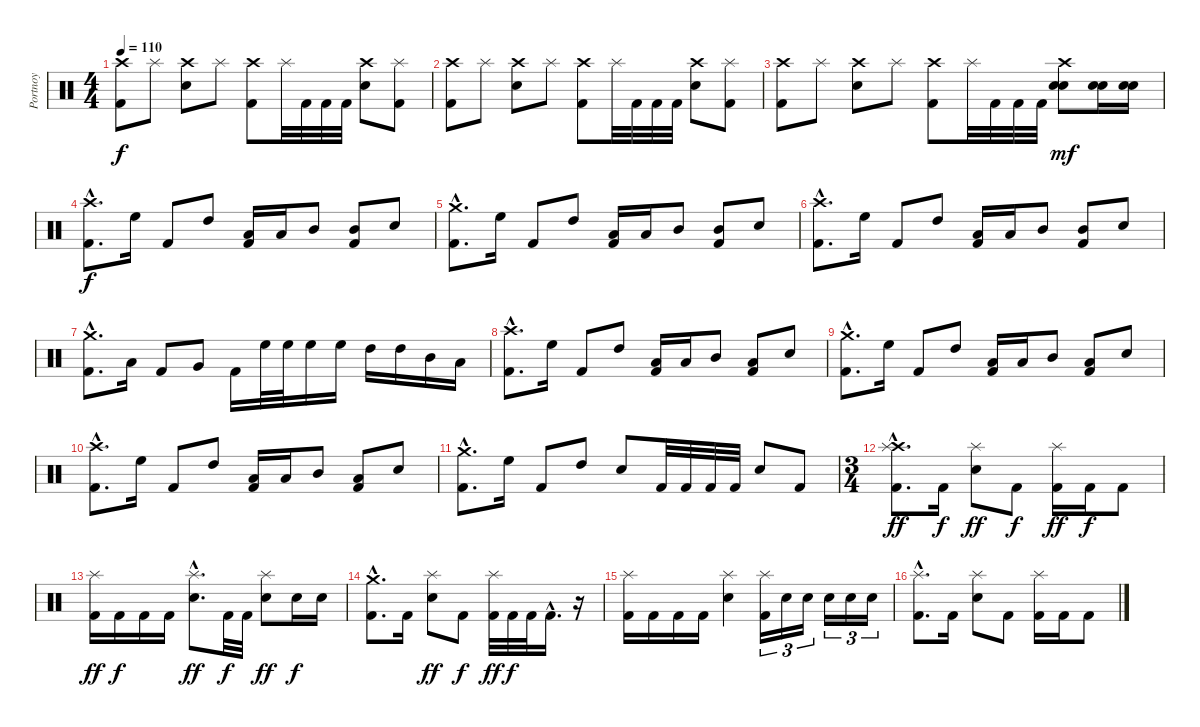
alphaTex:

\track ("Portnoy" "Portnoy") {instrument percussion}
\staff {score}
\articulation defaults
\ts (4 4)
\tempo 110
\clef neutral
\ks c
("Kick (hit) 2" "Crash high (hit)").8{dy f} "Splash (hit)".8 ("Crash high (hit)" "Snare (hit) 2").8 "Splash (hit)".8 ("Kick (hit) 2" "Crash high (hit)").8 "Splash (hit)".32 "Kick (hit) 2".32 "Kick (hit) 2".32 "Kick (hit) 2".32 ("Crash high (hit)" "Snare (hit) 2").8 ("Kick (hit) 2" "Splash (hit)").8 |
("Kick (hit) 2" "Crash high (hit)").8 "Splash (hit)".8 ("Crash high (hit)" "Snare (hit) 2").8 "Splash (hit)".8 ("Kick (hit) 2" "Crash high (hit)").8 "Splash (hit)".32 "Kick (hit) 2".32 "Kick (hit) 2".32 "Kick (hit) 2".32 ("Crash high (hit)" "Snare (hit) 2").8 ("Kick (hit) 2" "Splash (hit)").8 |
("Kick (hit) 2" "Crash high (hit)").8 "Splash (hit)".8 ("Crash high (hit)" "Snare (hit) 2").8 "Splash (hit)".8 ("Kick (hit) 2" "Crash high (hit)").8 "Splash (hit)".32 "Kick (hit) 2".32 "Kick (hit) 2".32 "Kick (hit) 2".32 ("Crash high (hit)" "Electric Snare (hit)" "Snare (hit) 2").8{dy mf} ("Electric Snare (hit)" "Snare (hit) 2").16 ("Electric Snare (hit)" "Snare (hit) 2").16 |
("Kick (hit) 2"{hac} "Crash high (hit)"{hac}).8{d dy f} "High Floor Tom (hit)".16 "Kick (hit) 2".8 "High Tom (hit)".8 ("Kick (hit) 2" "Low Tom (hit)").16 "Low Tom (hit)".16 "Mid Tom (hit)".8 ("Kick (hit) 2" "Mid Tom (hit)").8 "Snare (hit) 2".8 |
("Kick (hit) 2"{hac} "Crash medium (hit)"{hac}).8{d} "High Floor Tom (hit)".16 "Kick (hit) 2".8 "High Tom (hit)".8 ("Kick (hit) 2" "Low Tom (hit)").16 "Low Tom (hit)".16 "Mid Tom (hit)".8 ("Kick (hit) 2" "Mid Tom (hit)").8 "Snare (hit) 2".8 |
("Kick (hit) 2"{hac} "Crash high (hit)"{hac}).8{d} "High Floor Tom (hit)".16 "Kick (hit) 2".8 "High Tom (hit)".8 ("Kick (hit) 2" "Low Tom (hit)").16 "Low Tom (hit)".16 "Mid Tom (hit)".8 ("Kick (hit) 2" "Mid Tom (hit)").8 "Snare (hit) 2".8 |
("Kick (hit) 2"{hac} "Crash medium (hit)"{hac}).8{d} "Low Tom (hit)".16 "Kick (hit) 2".8 "Very Low Tom (hit)".8 "Kick (hit) 2".16 "High Floor Tom (hit)".32 "High Floor Tom (hit)".32 "High Floor Tom (hit)".16 "High Floor Tom (hit)".16 "High Tom (hit)".16 "High Tom (hit)".16 "Mid Tom (hit)".16 "Low Tom (hit)".16 |
("Kick (hit) 2"{hac} "Crash high (hit)"{hac}).8{d} "High Floor Tom (hit)".16 "Kick (hit) 2".8 "High Tom (hit)".8 ("Kick (hit) 2" "Low Tom (hit)").16 "Low Tom (hit)".16 "Mid Tom (hit)".8 ("Kick (hit) 2" "Low Tom (hit)").8 "Snare (hit) 2".8 |
("Kick (hit) 2"{hac} "Crash medium (hit)"{hac}).8{d} "High Floor Tom (hit)".16 "Kick (hit) 2".8 "High Tom (hit)".8 ("Kick (hit) 2" "Low Tom (hit)").16 "Low Tom (hit)".16 "Mid Tom (hit)".8 ("Kick (hit) 2" "Low Tom (hit)").8 "Snare (hit) 2".8 |
("Kick (hit) 2"{hac} "Crash high (hit)"{hac}).8{d} "High Floor Tom (hit)".16 "Kick (hit) 2".8 "High Tom (hit)".8 ("Kick (hit) 2" "Low Tom (hit)").16 "Low Tom (hit)".16 "Mid Tom (hit)".8 ("Kick (hit) 2" "Low Tom (hit)").8 "Snare (hit) 2".8 |
("Kick (hit) 2"{hac} "Crash medium (hit)"{hac}).8{d} "High Floor Tom (hit)".16 "Kick (hit) 2".8 "High Tom (hit)".8 "Snare (hit) 2".8 "Kick (hit) 2".32 "Kick (hit) 2".32 "Kick (hit) 2".32 "Kick (hit) 2".32 "Snare (hit) 2".8 "Kick (hit) 2".8 |
\ts (3 4)
("Kick (hit) 2"{hac} "Crash high (hit)"{hac} "Splash (hit)"{hac}).8{d dy ff} "Kick (hit) 2".16{dy f} ("Splash (hit)" "Snare (hit) 2").8{dy ff} "Kick (hit) 2".8{dy f} ("Kick (hit) 2" "Splash (hit)").16{dy ff} "Kick (hit) 2".16{dy f} "Kick (hit) 2".8 |
("Kick (hit) 2" "Splash (hit)").16{dy ff} "Kick (hit) 2".16{dy f} "Kick (hit) 2".16 "Kick (hit) 2".16 ("Splash (hit)"{hac} "Snare (hit) 2"{hac}).8{d dy ff} "Kick (hit) 2".32{dy f} "Kick (hit) 2".32 ("Splash (hit)" "Snare (hit) 2").8{dy ff} "Snare (hit) 2".16{dy f} "Snare (hit) 2".16 |
("Kick (hit) 2"{hac} "Crash medium (hit)"{hac}).8{d} "Kick (hit) 2".16 ("Splash (hit)" "Snare (hit) 2").8{dy ff} "Kick (hit) 2".8{dy f} ("Kick (hit) 2" "Splash (hit)").32{dy ff} "Kick (hit) 2".32{dy f} "Kick (hit) 2".32 "Kick (hit) 2"{hac}.16{d} r.16 |
("Kick (hit) 2" "Splash (hit)").16 "Kick (hit) 2".16 "Kick (hit) 2".16 "Kick (hit) 2".16 ("Splash (hit)" "Snare (hit) 2").4 ("Kick (hit) 2" "Splash (hit)").16{tu (3 2)} "Snare (hit) 2".16{tu (3 2)} "Snare (hit) 2".16{tu (3 2)} "Snare (hit) 2".16{tu (3 2)} "Snare (hit) 2".16{tu (3 2)} "Snare (hit) 2".16{tu (3 2)} |
("Kick (hit) 2"{hac} "Splash (hit)"{hac}).8{d} "Kick (hit) 2".16 ("Splash (hit)" "Snare (hit) 2").8 "Kick (hit) 2".8 ("Kick (hit) 2" "Splash (hit)").16 "Kick (hit) 2".16 "Kick (hit) 2".8
